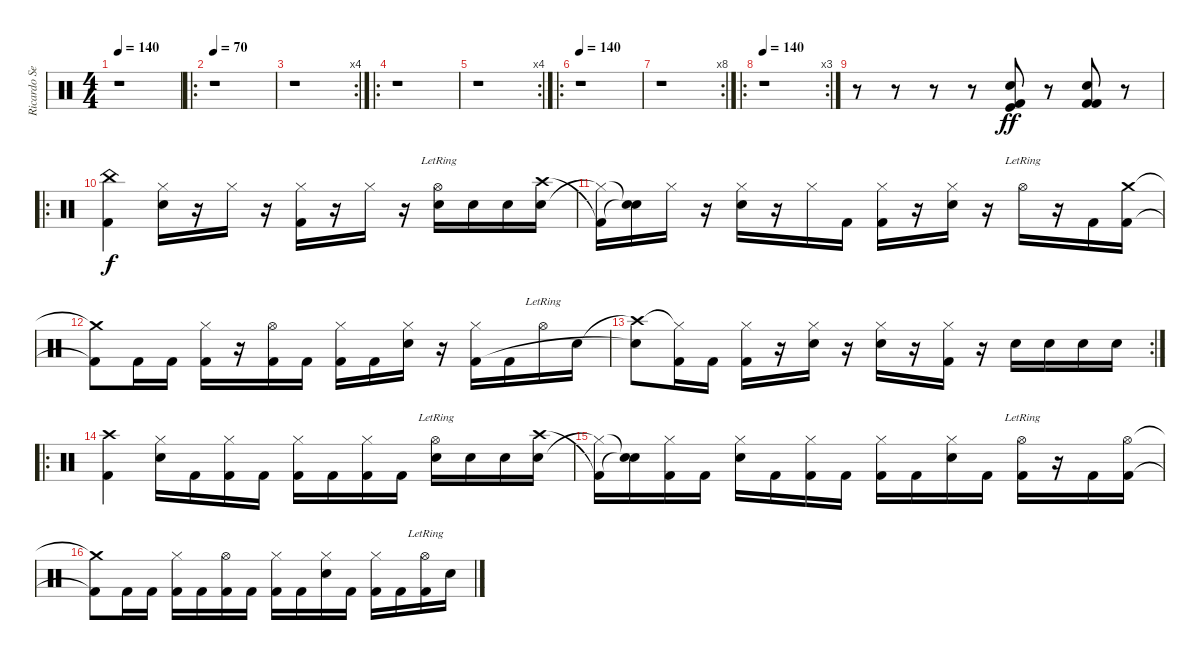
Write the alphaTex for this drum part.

\track ("Ricardo Severino" "Ricardo Se") {instrument percussion}
\staff {score}
\articulation defaults
\ts (4 4)
\tempo 140
\tempo 35
\tempo 140
\clef neutral
\ks c
r.1{dy ff} |
\ro
\tempo 70
r.1 |
\rc 4
r.1 |
\ro
r.1 |
\rc 4
r.1 |
\ro
\tempo 140
r.1 |
\rc 8
r.1 |
\ro
\rc 3
\tempo 140
r.1 |
r.8 r.8 r.8 r.8 ("Snare (hit) 2" "Kick (hit) 2" "Kick (hit)").8 r.8 ("Snare (hit) 2" "Kick (hit) 2" "Kick (hit) 2").8 r.8 |
\ro
("China (hit)" "Kick (hit) 2").4{dy f} ("Hi-Hat (closed)" "Snare (hit) 2").16 r.16 "Hi-Hat (closed)".16 r.16 ("Hi-Hat (closed)" "Kick (hit) 2").16 r.16 "Hi-Hat (closed)".16 r.16 ("Hi-Hat (open)"{lr} "Snare (hit) 2").16 "Snare (hit) 2".16 "Snare (hit) 2".16 ("Snare (hit) 2" "Crash high (hit)").16 |
("Hi-Hat (closed)"{t} "Kick (hit) 2"{t}).16 ("Snare (hit)"{t} "Snare (hit)"{t}).16 "Hi-Hat (closed)".16 r.16 ("Hi-Hat (closed)" "Snare (hit) 2").16 r.16 "Hi-Hat (closed)".16 "Kick (hit) 2".16 ("Hi-Hat (closed)" "Kick (hit) 2").16 r.16 ("Hi-Hat (closed)" "Snare (hit) 2").16 r.16 "Hi-Hat (open)"{lr}.16 r.16 "Kick (hit) 2".16 ("Crash medium (hit)" "Kick (hit) 2").16 |
("Crash medium (hit)"{t} "Kick (hit) 2"{t}).8 "Kick (hit) 2".16 "Kick (hit) 2".16 ("Hi-Hat (closed)" "Kick (hit) 2").16 r.16 ("Hi-Hat (open)" "Kick (hit) 2").16 "Kick (hit) 2".16 ("Hi-Hat (closed)" "Kick (hit) 2").16 "Kick (hit) 2".16 ("Hi-Hat (closed)" "Snare (hit) 2").16 r.16 ("Hi-Hat (closed)" "Kick (hit) 2").16 "Kick (hit) 2".16 "Hi-Hat (open)"{lr}.16 "Snare (hit) 2".16 |
\rc 2
("Crash high (hit)"{t} "Snare (hit) 2"{t}).8 ("Hi-Hat (closed)"{t} "Kick (hit) 2").16 "Kick (hit) 2".16 ("Hi-Hat (closed)" "Kick (hit) 2").16 r.16 ("Hi-Hat (closed)" "Snare (hit) 2").16 r.16 ("Hi-Hat (closed)" "Snare (hit) 2").16 r.16 ("Hi-Hat (closed)" "Kick (hit) 2").16 r.16 "Snare (hit) 2".16 "Snare (hit) 2".16 "Snare (hit) 2".16 "Snare (hit) 2".16 |
\ro
("Crash high (hit)" "Kick (hit) 2").4 ("Hi-Hat (closed)" "Snare (hit) 2").16 "Kick (hit) 2".16 ("Hi-Hat (closed)" "Kick (hit) 2").16 "Kick (hit) 2".16 ("Hi-Hat (closed)" "Kick (hit) 2").16 "Kick (hit) 2".16 ("Hi-Hat (closed)" "Kick (hit) 2").16 "Kick (hit) 2".16 ("Hi-Hat (open)"{lr} "Snare (hit) 2").16 "Snare (hit) 2".16 "Snare (hit) 2".16 ("Snare (hit) 2" "Crash high (hit)").16 |
("Hi-Hat (closed)"{t} "Kick (hit) 2"{t}).16 ("Snare (hit)"{t} "Snare (hit)"{t}).16 ("Hi-Hat (closed)" "Kick (hit) 2").16 "Kick (hit) 2".16 ("Hi-Hat (closed)" "Snare (hit) 2").16 "Kick (hit) 2".16 ("Hi-Hat (closed)" "Kick (hit) 2").16 "Kick (hit) 2".16 ("Hi-Hat (closed)" "Kick (hit) 2").16 "Kick (hit) 2".16 ("Hi-Hat (closed)" "Snare (hit) 2").16 "Kick (hit) 2".16 ("Hi-Hat (open)"{lr} "Kick (hit) 2").16 r.16 "Kick (hit) 2".16 ("Hi-Hat (open)" "Kick (hit) 2").16 |
("Crash medium (hit)"{t} "Kick (hit) 2"{t}).8 "Kick (hit) 2".16 "Kick (hit) 2".16 ("Hi-Hat (closed)" "Kick (hit) 2").16 "Kick (hit) 2".16 ("Hi-Hat (open)" "Kick (hit) 2").16 "Kick (hit) 2".16 ("Hi-Hat (closed)" "Kick (hit) 2").16 "Kick (hit) 2".16 ("Hi-Hat (closed)" "Snare (hit) 2").16 "Kick (hit) 2".16 ("Hi-Hat (closed)" "Kick (hit) 2").16 "Kick (hit) 2".16 ("Hi-Hat (open)"{lr} "Kick (hit) 2").16 "Snare (hit) 2".16
